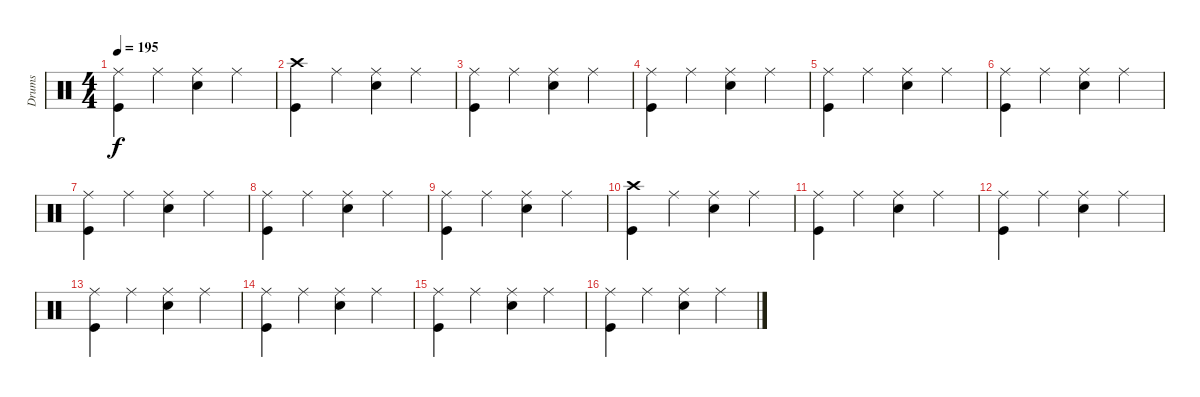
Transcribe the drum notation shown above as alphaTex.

\track ("Drums" "Drums") {instrument percussion}
\staff {score}
\articulation defaults
\ts (4 4)
\tempo 195
\clef neutral
\ks c
("Ride (middle)" "Kick (hit)").4{dy f} "Ride (middle)".4 ("Ride (middle)" "Electric Snare (hit)").4 "Ride (middle)".4 |
("Crash high (hit)" "Kick (hit)").4 "Ride (middle)".4 ("Ride (middle)" "Electric Snare (hit)").4 "Ride (middle)".4 |
("Ride (middle)" "Kick (hit)").4 "Ride (middle)".4 ("Ride (middle)" "Electric Snare (hit)").4 "Ride (middle)".4 |
("Ride (middle)" "Kick (hit)").4 "Ride (middle)".4 ("Ride (middle)" "Electric Snare (hit)").4 "Ride (middle)".4 |
("Ride (middle)" "Kick (hit)").4 "Ride (middle)".4 ("Ride (middle)" "Electric Snare (hit)").4 "Ride (middle)".4 |
("Ride (middle)" "Kick (hit)").4 "Ride (middle)".4 ("Ride (middle)" "Electric Snare (hit)").4 "Ride (middle)".4 |
("Ride (middle)" "Kick (hit)").4 "Ride (middle)".4 ("Ride (middle)" "Electric Snare (hit)").4 "Ride (middle)".4 |
("Ride (middle)" "Kick (hit)").4 "Ride (middle)".4 ("Ride (middle)" "Electric Snare (hit)").4 "Ride (middle)".4 |
("Ride (middle)" "Kick (hit)").4 "Ride (middle)".4 ("Ride (middle)" "Electric Snare (hit)").4 "Ride (middle)".4 |
("Crash high (hit)" "Kick (hit)").4 "Ride (middle)".4 ("Ride (middle)" "Electric Snare (hit)").4 "Ride (middle)".4 |
("Ride (middle)" "Kick (hit)").4 "Ride (middle)".4 ("Ride (middle)" "Electric Snare (hit)").4 "Ride (middle)".4 |
("Ride (middle)" "Kick (hit)").4 "Ride (middle)".4 ("Ride (middle)" "Electric Snare (hit)").4 "Ride (middle)".4 |
("Ride (middle)" "Kick (hit)").4 "Ride (middle)".4 ("Ride (middle)" "Electric Snare (hit)").4 "Ride (middle)".4 |
("Ride (middle)" "Kick (hit)").4 "Ride (middle)".4 ("Ride (middle)" "Electric Snare (hit)").4 "Ride (middle)".4 |
("Ride (middle)" "Kick (hit)").4 "Ride (middle)".4 ("Ride (middle)" "Electric Snare (hit)").4 "Ride (middle)".4 |
("Ride (middle)" "Kick (hit)").4 "Ride (middle)".4 ("Ride (middle)" "Electric Snare (hit)").4 "Ride (middle)".4
